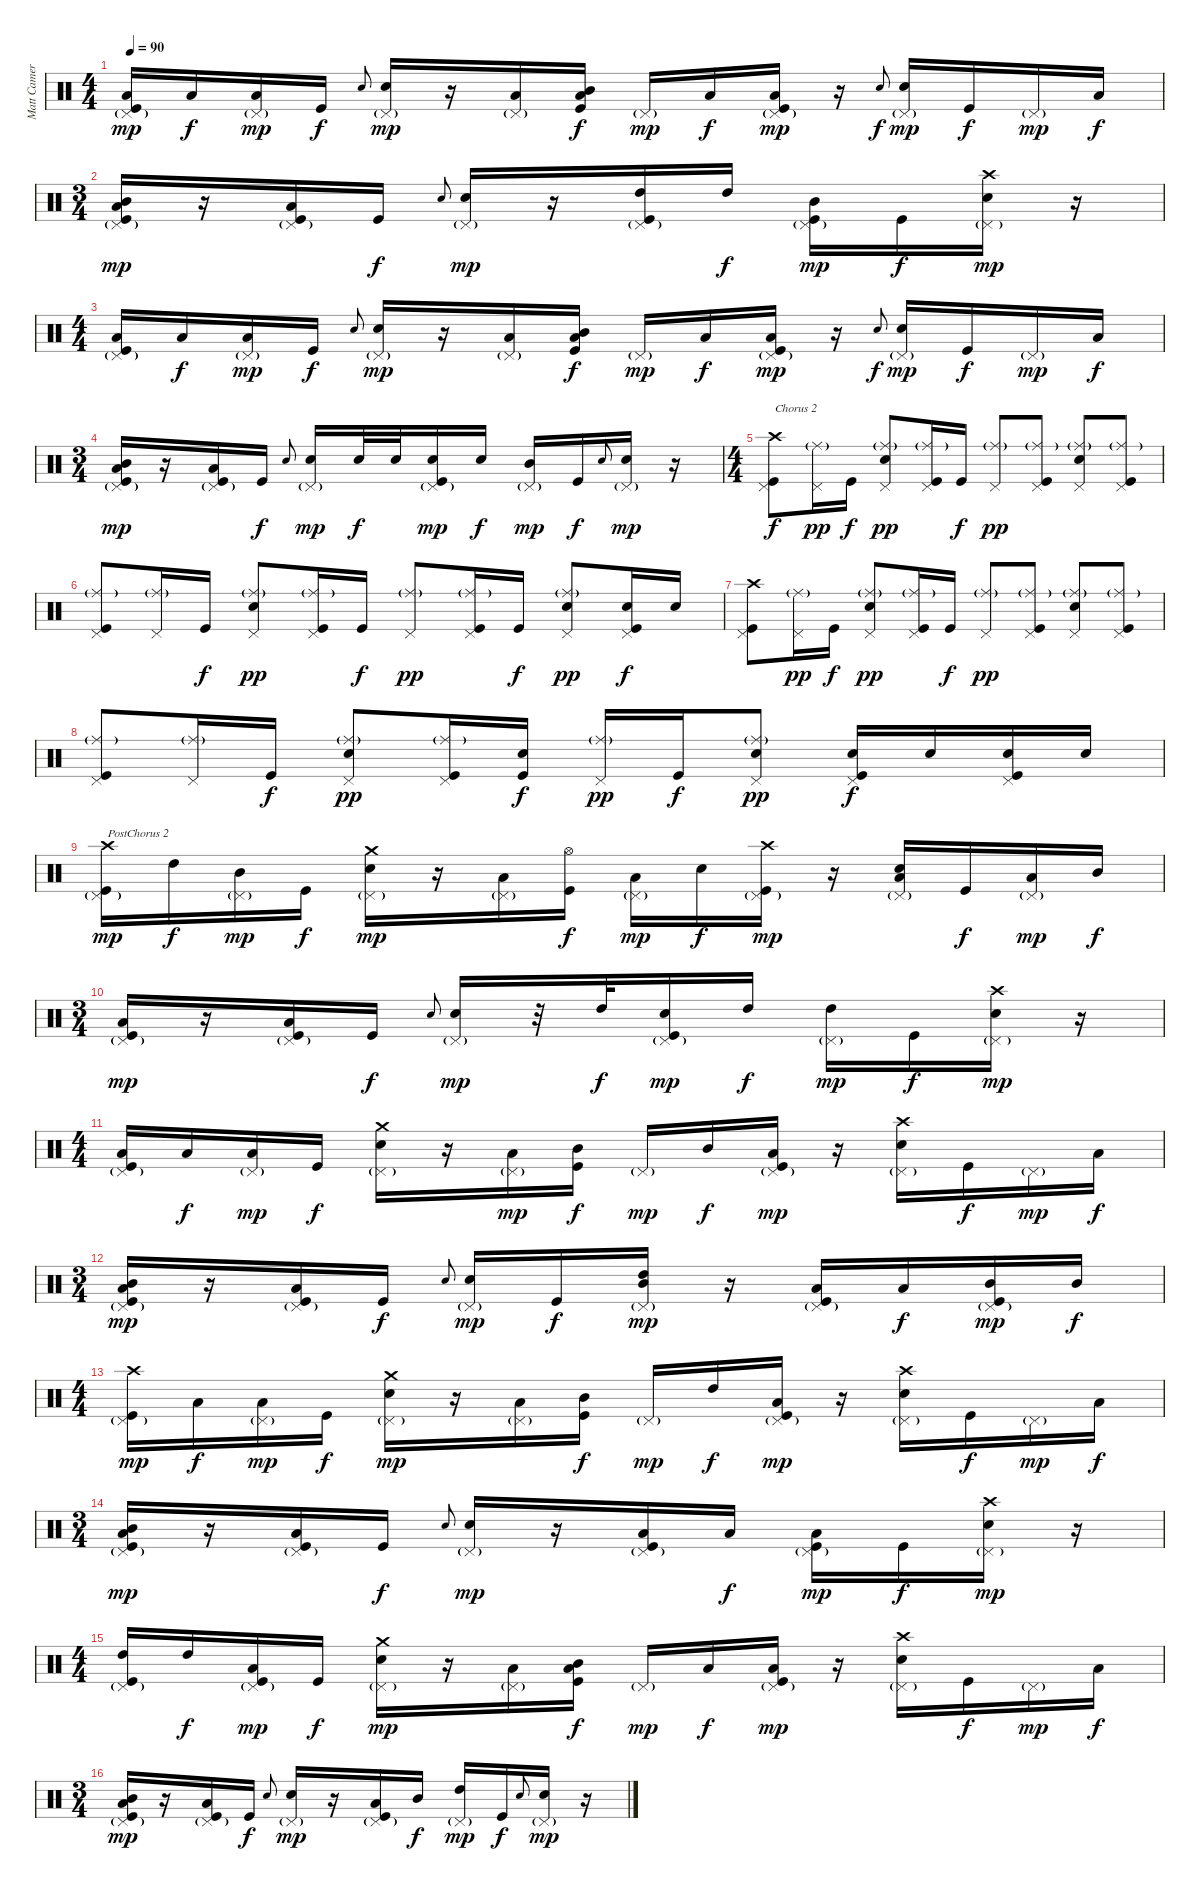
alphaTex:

\track ("Matt Cameron" "Matt Camer") {instrument percussion}
\staff {score}
\articulation defaults
\ts (4 4)
\tempo 90
\clef neutral
\ks c
("Low Floor Tom (hit)" "Pedal Hi-Hat (hit)"{g} "Kick (hit)").16{dy mp} "Low Floor Tom (hit)".16{dy f} ("Low Floor Tom (hit)" "Pedal Hi-Hat (hit)"{g}).16{dy mp} "Kick (hit)".16{dy f} "Electric Snare (hit)".8{gr onbeat} ("Electric Snare (hit)" "Pedal Hi-Hat (hit)"{g}).16{dy mp} r.16 ("Low Floor Tom (hit)" "Pedal Hi-Hat (hit)"{g}).16 ("Mid Tom (hit)" "Low Floor Tom (hit)" "Kick (hit)").16{dy f} "Pedal Hi-Hat (hit)"{g}.16{dy mp} "Low Floor Tom (hit)".16{dy f} ("Low Floor Tom (hit)" "Pedal Hi-Hat (hit)"{g} "Kick (hit)").16{dy mp} r.16 "Electric Snare (hit)".8{gr onbeat dy f} ("Electric Snare (hit)" "Pedal Hi-Hat (hit)"{g}).16{dy mp} "Kick (hit)".16{dy f} "Pedal Hi-Hat (hit)"{g}.16{dy mp} "Low Floor Tom (hit)".16{dy f} |
\ts (3 4)
("Mid Tom (hit)" "Low Floor Tom (hit)" "Pedal Hi-Hat (hit)"{g} "Kick (hit)").16{dy mp} r.16 ("Low Floor Tom (hit)" "Pedal Hi-Hat (hit)"{g} "Kick (hit)").16 "Kick (hit)".16{dy f} "Electric Snare (hit)".8{gr onbeat} ("Electric Snare (hit)" "Pedal Hi-Hat (hit)"{g}).16{dy mp} r.16 ("High Tom (hit)" "Pedal Hi-Hat (hit)"{g} "Kick (hit)").16 "High Tom (hit)".16{dy f} ("Mid Tom (hit)" "Pedal Hi-Hat (hit)"{g} "Kick (hit)").16{dy mp} "Kick (hit)".16{dy f} ("Crash high (hit)" "Electric Snare (hit)" "Pedal Hi-Hat (hit)"{g}).16{dy mp} r.16 |
\ts (4 4)
("Low Floor Tom (hit)" "Pedal Hi-Hat (hit)"{g} "Kick (hit)").16 "Low Floor Tom (hit)".16{dy f} ("Low Floor Tom (hit)" "Pedal Hi-Hat (hit)"{g}).16{dy mp} "Kick (hit)".16{dy f} "Electric Snare (hit)".8{gr onbeat} ("Electric Snare (hit)" "Pedal Hi-Hat (hit)"{g}).16{dy mp} r.16 ("Low Floor Tom (hit)" "Pedal Hi-Hat (hit)"{g}).16 ("Mid Tom (hit)" "Low Floor Tom (hit)" "Kick (hit)").16{dy f} "Pedal Hi-Hat (hit)"{g}.16{dy mp} "Low Floor Tom (hit)".16{dy f} ("Low Floor Tom (hit)" "Pedal Hi-Hat (hit)"{g} "Kick (hit)").16{dy mp} r.16 "Electric Snare (hit)".8{gr onbeat dy f} ("Electric Snare (hit)" "Pedal Hi-Hat (hit)"{g}).16{dy mp} "Kick (hit)".16{dy f} "Pedal Hi-Hat (hit)"{g}.16{dy mp} "Low Floor Tom (hit)".16{dy f} |
\ts (3 4)
("Mid Tom (hit)" "Low Floor Tom (hit)" "Pedal Hi-Hat (hit)"{g} "Kick (hit)").16{dy mp} r.16 ("Low Floor Tom (hit)" "Pedal Hi-Hat (hit)"{g} "Kick (hit)").16 "Kick (hit)".16{dy f} "Electric Snare (hit)".8{gr onbeat} ("Electric Snare (hit)" "Pedal Hi-Hat (hit)"{g}).16{dy mp} "Electric Snare (hit)".32{dy f} "Electric Snare (hit)".32 ("Electric Snare (hit)" "Pedal Hi-Hat (hit)"{g} "Kick (hit)").16{dy mp} "Electric Snare (hit)".16{dy f} ("Mid Tom (hit)" "Pedal Hi-Hat (hit)"{g}).16{dy mp} "Kick (hit)".16{dy f} "Electric Snare (hit)".8{gr onbeat} ("Electric Snare (hit)" "Pedal Hi-Hat (hit)"{g}).16{dy mp} r.16 |
\ts (4 4)
("Crash high (hit)" "Pedal Hi-Hat (hit)" "Kick (hit)").8{txt "Chorus 2" dy f} ("Ride (middle)"{g} "Pedal Hi-Hat (hit)").16{dy pp} "Kick (hit)".16{dy f} ("Ride (middle)"{g} "Electric Snare (hit)" "Pedal Hi-Hat (hit)").8{dy pp} ("Ride (middle)"{g} "Pedal Hi-Hat (hit)" "Kick (hit)").16 "Kick (hit)".16{dy f} ("Ride (middle)"{g} "Pedal Hi-Hat (hit)").8{dy pp} ("Ride (middle)"{g} "Pedal Hi-Hat (hit)" "Kick (hit)").8 ("Ride (middle)"{g} "Electric Snare (hit)" "Pedal Hi-Hat (hit)").8 ("Ride (middle)"{g} "Pedal Hi-Hat (hit)" "Kick (hit)").8 |
("Ride (middle)"{g} "Pedal Hi-Hat (hit)" "Kick (hit)").8 ("Ride (middle)"{g} "Pedal Hi-Hat (hit)").16 "Kick (hit)".16{dy f} ("Ride (middle)"{g} "Electric Snare (hit)" "Pedal Hi-Hat (hit)").8{dy pp} ("Ride (middle)"{g} "Pedal Hi-Hat (hit)" "Kick (hit)").16 "Kick (hit)".16{dy f} ("Ride (middle)"{g} "Pedal Hi-Hat (hit)").8{dy pp} ("Ride (middle)"{g} "Pedal Hi-Hat (hit)" "Kick (hit)").16 "Kick (hit)".16{dy f} ("Ride (middle)"{g} "Electric Snare (hit)" "Pedal Hi-Hat (hit)").8{dy pp} ("Electric Snare (hit)" "Pedal Hi-Hat (hit)" "Kick (hit)").16{dy f} "Electric Snare (hit)".16 |
("Crash high (hit)" "Pedal Hi-Hat (hit)" "Kick (hit)").8 ("Ride (middle)"{g} "Pedal Hi-Hat (hit)").16{dy pp} "Kick (hit)".16{dy f} ("Ride (middle)"{g} "Electric Snare (hit)" "Pedal Hi-Hat (hit)").8{dy pp} ("Ride (middle)"{g} "Pedal Hi-Hat (hit)" "Kick (hit)").16 "Kick (hit)".16{dy f} ("Ride (middle)"{g} "Pedal Hi-Hat (hit)").8{dy pp} ("Ride (middle)"{g} "Pedal Hi-Hat (hit)" "Kick (hit)").8 ("Ride (middle)"{g} "Electric Snare (hit)" "Pedal Hi-Hat (hit)").8 ("Ride (middle)"{g} "Pedal Hi-Hat (hit)" "Kick (hit)").8 |
("Ride (middle)"{g} "Pedal Hi-Hat (hit)" "Kick (hit)").8 ("Ride (middle)"{g} "Pedal Hi-Hat (hit)").16 "Kick (hit)".16{dy f} ("Ride (middle)"{g} "Electric Snare (hit)" "Pedal Hi-Hat (hit)").8{dy pp} ("Ride (middle)"{g} "Pedal Hi-Hat (hit)" "Kick (hit)").16 ("Electric Snare (hit)" "Kick (hit)").16{dy f} ("Ride (middle)"{g} "Pedal Hi-Hat (hit)").16{dy pp} "Kick (hit)".16{dy f} ("Ride (middle)"{g} "Electric Snare (hit)" "Pedal Hi-Hat (hit)").8{dy pp} ("Electric Snare (hit)" "Pedal Hi-Hat (hit)" "Kick (hit)").16{dy f} "Electric Snare (hit)".16 ("Electric Snare (hit)" "Pedal Hi-Hat (hit)" "Kick (hit)").16 "Electric Snare (hit)".16 |
("Crash high (hit)" "Pedal Hi-Hat (hit)"{g} "Kick (hit)").16{txt "PostChorus 2" dy mp} "High Tom (hit)".16{dy f} ("Mid Tom (hit)" "Pedal Hi-Hat (hit)"{g}).16{dy mp} "Kick (hit)".16{dy f} ("Crash medium (hit)" "Electric Snare (hit)" "Pedal Hi-Hat (hit)"{g}).16{dy mp} r.16 ("Low Floor Tom (hit)" "Pedal Hi-Hat (hit)"{g}).16 ("Hi-Hat (open)" "Kick (hit)").16{dy f} ("Low Floor Tom (hit)" "Pedal Hi-Hat (hit)"{g}).16{dy mp} "Electric Snare (hit)".16{dy f} ("Crash high (hit)" "Pedal Hi-Hat (hit)"{g} "Kick (hit)").16{dy mp} r.16 ("Electric Snare (hit)" "Low Floor Tom (hit)" "Pedal Hi-Hat (hit)"{g}).16 "Kick (hit)".16{dy f} ("Low Floor Tom (hit)" "Pedal Hi-Hat (hit)"{g}).16{dy mp} "Mid Tom (hit)".16{dy f} |
\ts (3 4)
("Low Floor Tom (hit)" "Pedal Hi-Hat (hit)"{g} "Kick (hit)").16{dy mp} r.16 ("Low Floor Tom (hit)" "Pedal Hi-Hat (hit)"{g} "Kick (hit)").16 "Kick (hit)".16{dy f} "Electric Snare (hit)".8{gr onbeat} ("Electric Snare (hit)" "Pedal Hi-Hat (hit)"{g}).16{dy mp} r.32 "High Tom (hit)".32{dy f} ("Electric Snare (hit)" "Pedal Hi-Hat (hit)"{g} "Kick (hit)").16{dy mp} "High Tom (hit)".16{dy f} ("High Tom (hit)" "Pedal Hi-Hat (hit)"{g}).16{dy mp} "Kick (hit)".16{dy f} ("Crash high (hit)" "Electric Snare (hit)" "Pedal Hi-Hat (hit)"{g}).16{dy mp} r.16 |
\ts (4 4)
("Low Floor Tom (hit)" "Pedal Hi-Hat (hit)"{g} "Kick (hit)").16 "Low Floor Tom (hit)".16{dy f} ("Low Floor Tom (hit)" "Pedal Hi-Hat (hit)"{g}).16{dy mp} "Kick (hit)".16{dy f} ("Crash medium (hit)" "Electric Snare (hit)" "Pedal Hi-Hat (hit)"{g}).16 r.16 ("Low Floor Tom (hit)" "Pedal Hi-Hat (hit)"{g}).16{dy mp} ("Mid Tom (hit)" "Kick (hit)").16{dy f} "Pedal Hi-Hat (hit)"{g}.16{dy mp} "Mid Tom (hit)".16{dy f} ("Low Floor Tom (hit)" "Pedal Hi-Hat (hit)"{g} "Kick (hit)").16{dy mp} r.16 ("Crash high (hit)" "Electric Snare (hit)" "Pedal Hi-Hat (hit)"{g}).16 "Kick (hit)".16{dy f} "Pedal Hi-Hat (hit)"{g}.16{dy mp} "Low Floor Tom (hit)".16{dy f} |
\ts (3 4)
("Mid Tom (hit)" "Low Floor Tom (hit)" "Pedal Hi-Hat (hit)"{g} "Kick (hit)").16{dy mp} r.16 ("Low Floor Tom (hit)" "Pedal Hi-Hat (hit)"{g} "Kick (hit)").16 "Kick (hit)".16{dy f} "Electric Snare (hit)".8{gr onbeat} ("Electric Snare (hit)" "Pedal Hi-Hat (hit)"{g}).16{dy mp} "Kick (hit)".16{dy f} ("High Tom (hit)" "Mid Tom (hit)" "Pedal Hi-Hat (hit)"{g}).16{dy mp} r.16 ("Low Floor Tom (hit)" "Pedal Hi-Hat (hit)"{g} "Kick (hit)").16 "Low Floor Tom (hit)".16{dy f} ("Mid Tom (hit)" "Pedal Hi-Hat (hit)"{g} "Kick (hit)").16{dy mp} "Mid Tom (hit)".16{dy f} |
\ts (4 4)
("Crash high (hit)" "Pedal Hi-Hat (hit)"{g} "Kick (hit)").16{dy mp} "Low Floor Tom (hit)".16{dy f} ("Low Floor Tom (hit)" "Pedal Hi-Hat (hit)"{g}).16{dy mp} "Kick (hit)".16{dy f} ("Crash medium (hit)" "Electric Snare (hit)" "Pedal Hi-Hat (hit)"{g}).16{dy mp} r.16 ("Low Floor Tom (hit)" "Pedal Hi-Hat (hit)"{g}).16 ("Mid Tom (hit)" "Kick (hit)").16{dy f} "Pedal Hi-Hat (hit)"{g}.16{dy mp} "High Tom (hit)".16{dy f} ("Low Floor Tom (hit)" "Pedal Hi-Hat (hit)"{g} "Kick (hit)").16{dy mp} r.16 ("Crash high (hit)" "Electric Snare (hit)" "Pedal Hi-Hat (hit)"{g}).16 "Kick (hit)".16{dy f} "Pedal Hi-Hat (hit)"{g}.16{dy mp} "Low Floor Tom (hit)".16{dy f} |
\ts (3 4)
("Mid Tom (hit)" "Low Floor Tom (hit)" "Pedal Hi-Hat (hit)"{g} "Kick (hit)").16{dy mp} r.16 ("Low Floor Tom (hit)" "Pedal Hi-Hat (hit)"{g} "Kick (hit)").16 "Kick (hit)".16{dy f} "Electric Snare (hit)".8{gr onbeat} ("Electric Snare (hit)" "Pedal Hi-Hat (hit)"{g}).16{dy mp} r.16 ("Low Floor Tom (hit)" "Pedal Hi-Hat (hit)"{g} "Kick (hit)").16 "Low Floor Tom (hit)".16{dy f} ("Low Floor Tom (hit)" "Pedal Hi-Hat (hit)"{g} "Kick (hit)").16{dy mp} "Kick (hit)".16{dy f} ("Crash high (hit)" "Electric Snare (hit)" "Pedal Hi-Hat (hit)"{g}).16{dy mp} r.16 |
\ts (4 4)
("High Tom (hit)" "Pedal Hi-Hat (hit)"{g} "Kick (hit)").16 "High Tom (hit)".16{dy f} ("Low Floor Tom (hit)" "Pedal Hi-Hat (hit)"{g} "Kick (hit)").16{dy mp} "Kick (hit)".16{dy f} ("Crash medium (hit)" "Electric Snare (hit)" "Pedal Hi-Hat (hit)"{g}).16{dy mp} r.16 ("Low Floor Tom (hit)" "Pedal Hi-Hat (hit)"{g}).16 ("Mid Tom (hit)" "Low Floor Tom (hit)" "Kick (hit)").16{dy f} "Pedal Hi-Hat (hit)"{g}.16{dy mp} "Low Floor Tom (hit)".16{dy f} ("Low Floor Tom (hit)" "Pedal Hi-Hat (hit)"{g} "Kick (hit)").16{dy mp} r.16 ("Crash high (hit)" "Electric Snare (hit)" "Pedal Hi-Hat (hit)"{g}).16 "Kick (hit)".16{dy f} "Pedal Hi-Hat (hit)"{g}.16{dy mp} "Low Floor Tom (hit)".16{dy f} |
\ts (3 4)
("Mid Tom (hit)" "Low Floor Tom (hit)" "Pedal Hi-Hat (hit)"{g} "Kick (hit)").16{dy mp} r.16 ("Low Floor Tom (hit)" "Pedal Hi-Hat (hit)"{g} "Kick (hit)").16 "Kick (hit)".16{dy f} "Electric Snare (hit)".8{gr onbeat} ("Electric Snare (hit)" "Pedal Hi-Hat (hit)"{g}).16{dy mp} r.16 ("Low Floor Tom (hit)" "Pedal Hi-Hat (hit)"{g} "Kick (hit)").16 "Mid Tom (hit)".16{dy f} ("High Tom (hit)" "Pedal Hi-Hat (hit)"{g}).16{dy mp} "Kick (hit)".16{dy f} "Electric Snare (hit)".8{gr onbeat} ("Electric Snare (hit)" "Pedal Hi-Hat (hit)"{g}).16{dy mp} r.16
